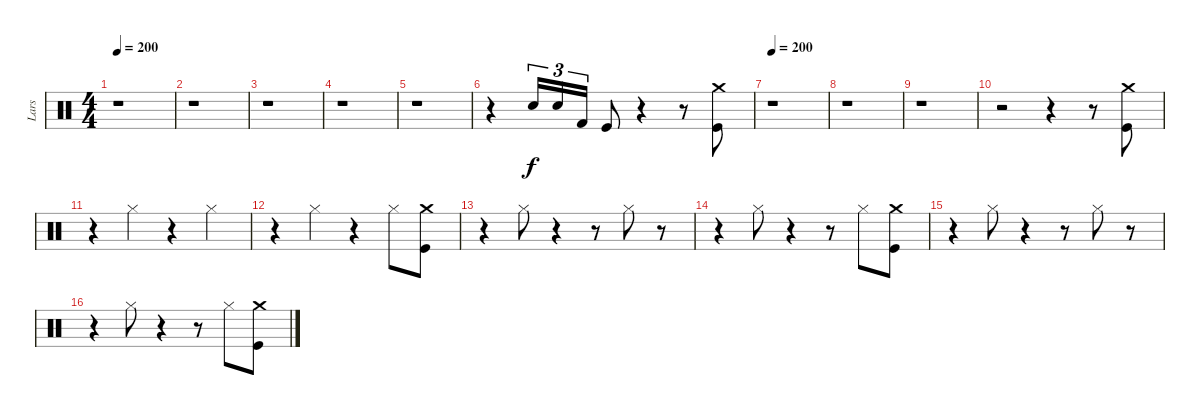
\track ("Lars" "Lars") {instrument percussion}
\staff {score}
\articulation defaults
\ts (4 4)
\tempo 200
\tempo 140
\tempo 200
\clef neutral
\ks c
r.1{dy f} |
r.1 |
r.1 |
r.1 |
r.1 |
r.4 "Snare (hit) 2".16{tu (3 2)} "Snare (hit) 2".16{tu (3 2)} "Kick (hit) 2".16{tu (3 2)} "Kick (hit)".8 r.4 r.8 ("Crash medium (hit)" "Kick (hit)").8 |
\tempo 200
r.1 |
r.1 |
r.1 |
r.2 r.4 r.8 ("Crash medium (hit)" "Kick (hit)").8 |
r.4 "Hi-Hat (closed)".4 r.4 "Hi-Hat (closed)".4 |
r.4 "Hi-Hat (closed)".4 r.4 "Hi-Hat (closed)".8 ("Crash medium (hit)" "Kick (hit)").8 |
r.4 "Hi-Hat (closed)".8 r.4 r.8 "Hi-Hat (closed)".8 r.8 |
r.4 "Hi-Hat (closed)".8 r.4 r.8 "Hi-Hat (closed)".8 ("Crash medium (hit)" "Kick (hit)").8 |
r.4 "Hi-Hat (closed)".8 r.4 r.8 "Hi-Hat (closed)".8 r.8 |
r.4 "Hi-Hat (closed)".8 r.4 r.8 "Hi-Hat (closed)".8 ("Crash medium (hit)" "Kick (hit)").8
